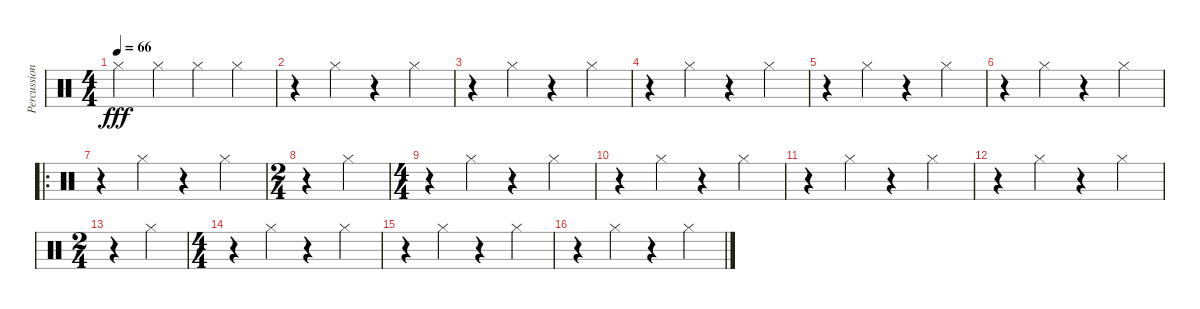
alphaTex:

\track ("Percussions" "Percussion") {instrument percussion}
\staff {score}
\articulation defaults
\ts (4 4)
\tempo 66
\clef neutral
\ks c "Hi-Hat (closed)".4{dy fff} "Hi-Hat (closed)".4 "Hi-Hat (closed)".4 "Hi-Hat (closed)".4
|
r.4 "Hi-Hat (closed)".4 r.4 "Hi-Hat (closed)".4 |
r.4 "Hi-Hat (closed)".4 r.4 "Hi-Hat (closed)".4 |
r.4 "Hi-Hat (closed)".4 r.4 "Hi-Hat (closed)".4 |
r.4 "Hi-Hat (closed)".4 r.4 "Hi-Hat (closed)".4 |
r.4 "Hi-Hat (closed)".4 r.4 "Hi-Hat (closed)".4 |
\ro
r.4 "Hi-Hat (closed)".4 r.4 "Hi-Hat (closed)".4 |
\ts (2 4)
r.4 "Hi-Hat (closed)".4 |
\ts (4 4)
r.4 "Hi-Hat (closed)".4 r.4 "Hi-Hat (closed)".4 |
r.4 "Hi-Hat (closed)".4 r.4 "Hi-Hat (closed)".4 |
r.4 "Hi-Hat (closed)".4 r.4 "Hi-Hat (closed)".4 |
r.4 "Hi-Hat (closed)".4 r.4 "Hi-Hat (closed)".4 |
\ts (2 4)
r.4 "Hi-Hat (closed)".4 |
\ts (4 4)
r.4 "Hi-Hat (closed)".4 r.4 "Hi-Hat (closed)".4 |
r.4 "Hi-Hat (closed)".4 r.4 "Hi-Hat (closed)".4 |
r.4 "Hi-Hat (closed)".4 r.4 "Hi-Hat (closed)".4
